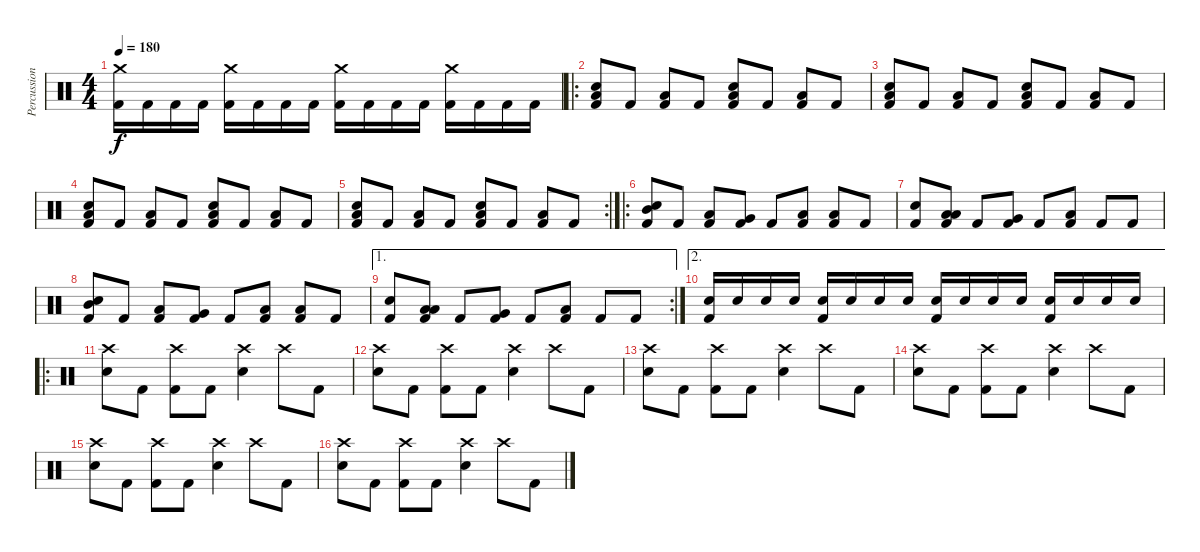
\track ("Percussions" "Percussion") {instrument percussion}
\staff {score}
\articulation defaults
\ts (4 4)
\tempo 180
\clef neutral
\ks c
("Crash medium (hit)" "Kick (hit) 2").16{dy f} "Kick (hit) 2".16 "Kick (hit) 2".16 "Kick (hit) 2".16 ("Crash medium (hit)" "Kick (hit) 2").16 "Kick (hit) 2".16 "Kick (hit) 2".16 "Kick (hit) 2".16 ("Crash medium (hit)" "Kick (hit) 2").16 "Kick (hit) 2".16 "Kick (hit) 2".16 "Kick (hit) 2".16 ("Crash medium (hit)" "Kick (hit) 2").16 "Kick (hit) 2".16 "Kick (hit) 2".16 "Kick (hit) 2".16 |
\ro
("Low Floor Tom (hit)" "Snare (hit) 2" "Kick (hit) 2").8 "Kick (hit) 2".8 ("Low Floor Tom (hit)" "Kick (hit) 2").8 "Kick (hit) 2".8 ("Low Floor Tom (hit)" "Snare (hit) 2" "Kick (hit) 2").8 "Kick (hit) 2".8 ("Low Floor Tom (hit)" "Kick (hit) 2").8 "Kick (hit) 2".8 |
("Low Floor Tom (hit)" "Snare (hit) 2" "Kick (hit) 2").8 "Kick (hit) 2".8 ("Low Floor Tom (hit)" "Kick (hit) 2").8 "Kick (hit) 2".8 ("Low Floor Tom (hit)" "Snare (hit) 2" "Kick (hit) 2").8 "Kick (hit) 2".8 ("Low Floor Tom (hit)" "Kick (hit) 2").8 "Kick (hit) 2".8 |
("Low Floor Tom (hit)" "Snare (hit) 2" "Kick (hit) 2").8 "Kick (hit) 2".8 ("Low Floor Tom (hit)" "Kick (hit) 2").8 "Kick (hit) 2".8 ("Low Floor Tom (hit)" "Snare (hit) 2" "Kick (hit) 2").8 "Kick (hit) 2".8 ("Low Floor Tom (hit)" "Kick (hit) 2").8 "Kick (hit) 2".8 |
\rc 2
("Low Floor Tom (hit)" "Snare (hit) 2" "Kick (hit) 2").8 "Kick (hit) 2".8 ("Low Floor Tom (hit)" "Kick (hit) 2").8 "Kick (hit) 2".8 ("Low Floor Tom (hit)" "Snare (hit) 2" "Kick (hit) 2").8 "Kick (hit) 2".8 ("Low Floor Tom (hit)" "Kick (hit) 2").8 "Kick (hit) 2".8 |
\ro
("Mid Tom (hit)" "Snare (hit) 2" "Kick (hit) 2").8 "Kick (hit) 2".8 ("Low Floor Tom (hit)" "Kick (hit) 2").8 ("Very Low Tom (hit)" "Kick (hit) 2").8 "Kick (hit) 2".8 ("Low Tom (hit)" "Kick (hit) 2").8 ("Low Tom (hit)" "Kick (hit) 2").8 "Kick (hit) 2".8 |
("Snare (hit) 2" "Kick (hit) 2").8 ("Low Tom (hit)" "Low Tom (hit)" "Kick (hit) 2").8 "Kick (hit) 2".8 ("Very Low Tom (hit)" "Kick (hit) 2").8 "Kick (hit) 2".8 ("Low Floor Tom (hit)" "Kick (hit) 2").8 "Kick (hit) 2".8 "Kick (hit) 2".8 |
("Mid Tom (hit)" "Snare (hit) 2" "Kick (hit) 2").8 "Kick (hit) 2".8 ("Low Floor Tom (hit)" "Kick (hit) 2").8 ("Very Low Tom (hit)" "Kick (hit) 2").8 "Kick (hit) 2".8 ("Low Tom (hit)" "Kick (hit) 2").8 ("Low Tom (hit)" "Kick (hit) 2").8 "Kick (hit) 2".8 |
\ae 1
\rc 2
("Snare (hit) 2" "Kick (hit) 2").8 ("Low Tom (hit)" "Low Tom (hit)" "Kick (hit) 2").8 "Kick (hit) 2".8 ("Very Low Tom (hit)" "Kick (hit) 2").8 "Kick (hit) 2".8 ("Low Floor Tom (hit)" "Kick (hit) 2").8 "Kick (hit) 2".8 "Kick (hit) 2".8 |
\ae 2
("Snare (hit) 2" "Kick (hit) 2").16 "Snare (hit) 2".16 "Snare (hit) 2".16 "Snare (hit) 2".16 ("Snare (hit) 2" "Kick (hit) 2").16 "Snare (hit) 2".16 "Snare (hit) 2".16 "Snare (hit) 2".16 ("Snare (hit) 2" "Kick (hit) 2").16 "Snare (hit) 2".16 "Snare (hit) 2".16 "Snare (hit) 2".16 ("Snare (hit) 2" "Kick (hit) 2").16 "Snare (hit) 2".16 "Snare (hit) 2".16 "Snare (hit) 2".16 |
\ro
("Crash high (hit)" "Snare (hit) 2").8 "Kick (hit) 2".8 ("Crash high (hit)" "Kick (hit) 2").8 "Kick (hit) 2".8 ("Crash high (hit)" "Snare (hit) 2").4 "Crash high (hit)".8 "Kick (hit) 2".8 |
("Crash high (hit)" "Snare (hit) 2").8 "Kick (hit) 2".8 ("Crash high (hit)" "Kick (hit) 2").8 "Kick (hit) 2".8 ("Crash high (hit)" "Snare (hit) 2").4 "Crash high (hit)".8 "Kick (hit) 2".8 |
("Crash high (hit)" "Snare (hit) 2").8 "Kick (hit) 2".8 ("Crash high (hit)" "Kick (hit) 2").8 "Kick (hit) 2".8 ("Crash high (hit)" "Snare (hit) 2").4 "Crash high (hit)".8 "Kick (hit) 2".8 |
("Crash high (hit)" "Snare (hit) 2").8 "Kick (hit) 2".8 ("Crash high (hit)" "Kick (hit) 2").8 "Kick (hit) 2".8 ("Crash high (hit)" "Snare (hit) 2").4 "Crash high (hit)".8 "Kick (hit) 2".8 |
("Crash high (hit)" "Snare (hit) 2").8 "Kick (hit) 2".8 ("Crash high (hit)" "Kick (hit) 2").8 "Kick (hit) 2".8 ("Crash high (hit)" "Snare (hit) 2").4 "Crash high (hit)".8 "Kick (hit) 2".8 |
("Crash high (hit)" "Snare (hit) 2").8 "Kick (hit) 2".8 ("Crash high (hit)" "Kick (hit) 2").8 "Kick (hit) 2".8 ("Crash high (hit)" "Snare (hit) 2").4 "Crash high (hit)".8 "Kick (hit) 2".8
